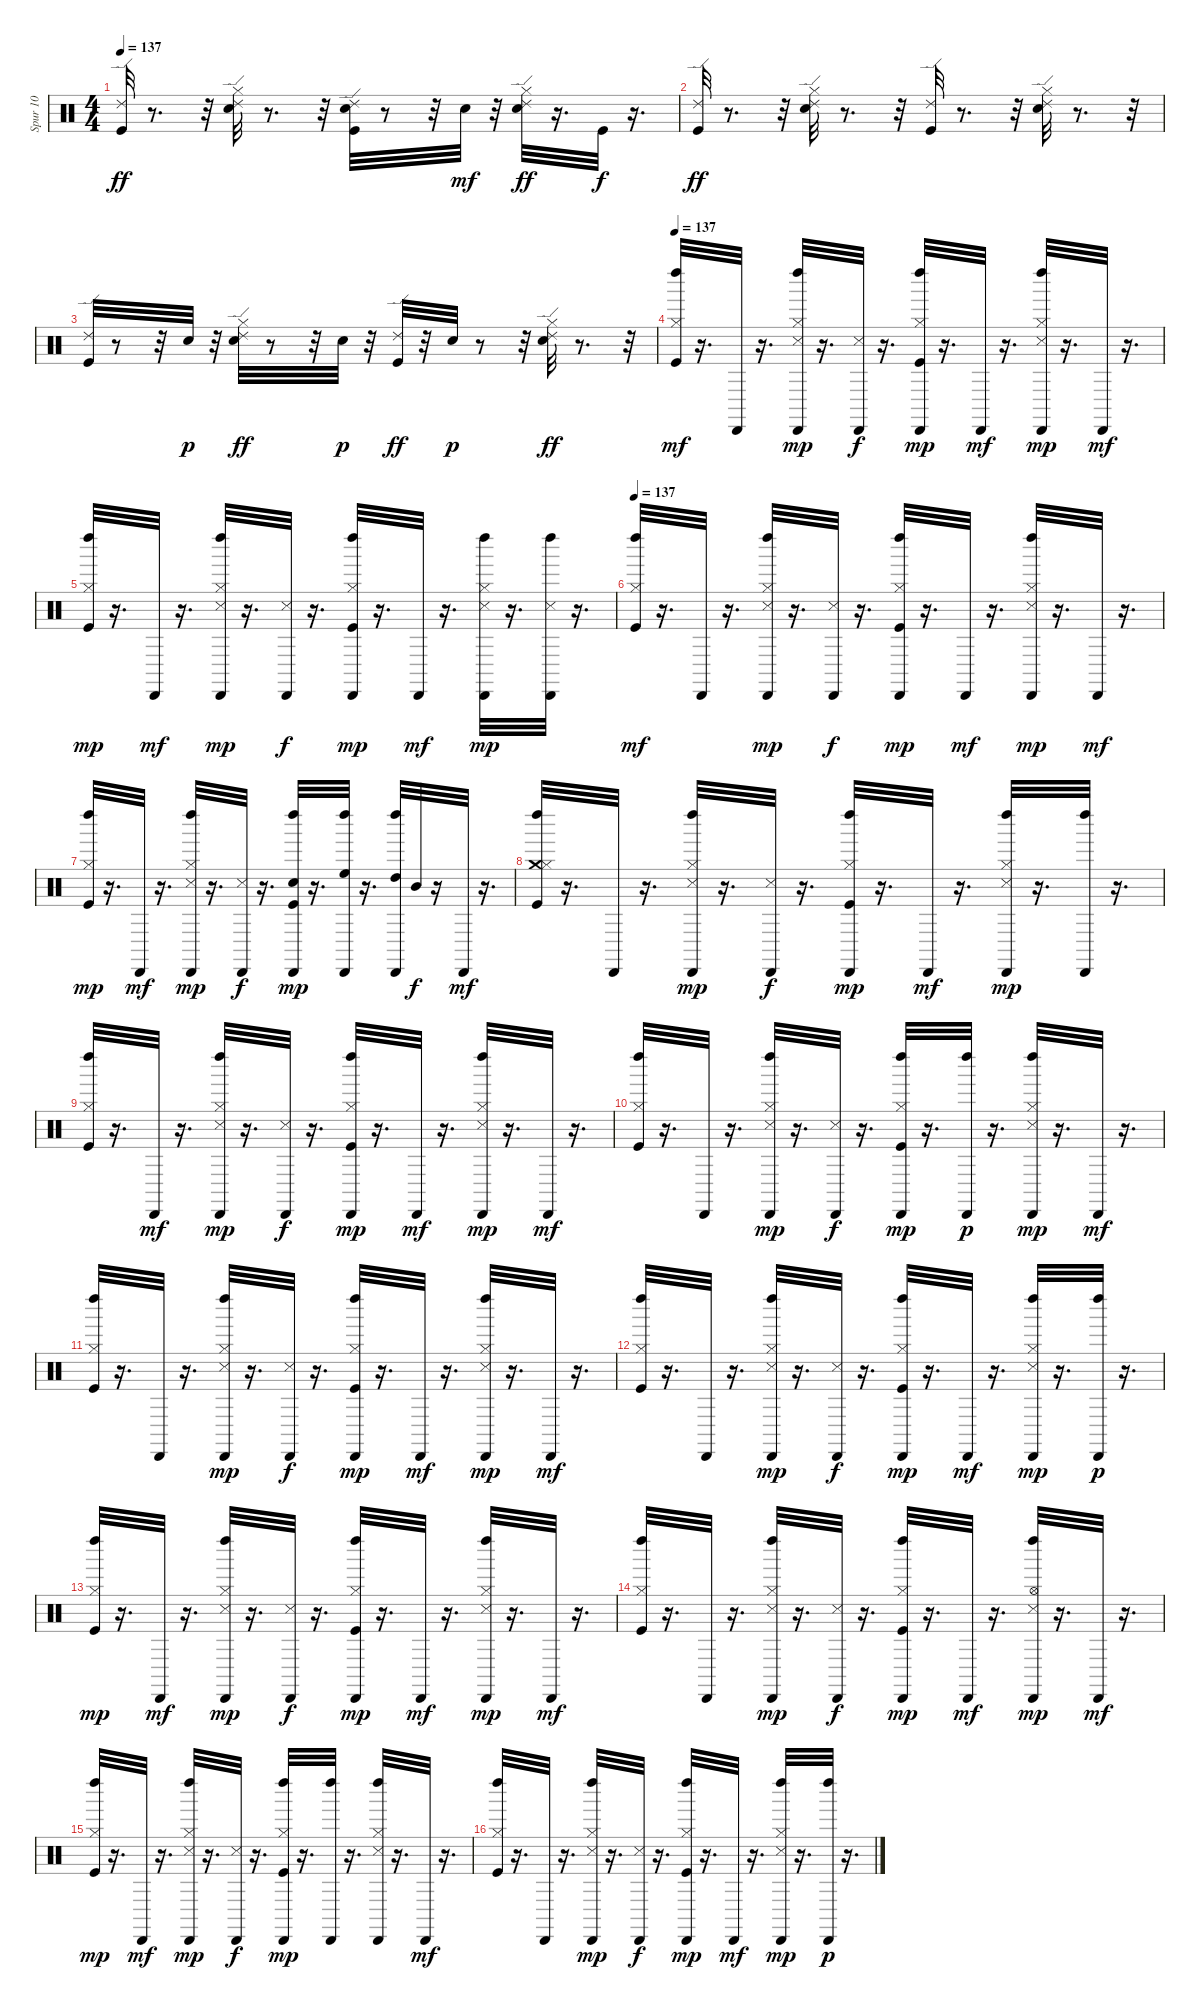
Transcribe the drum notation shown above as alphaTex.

\track ("Spur 10" "Spur 10") {instrument percussion}
\staff {score}
\articulation defaults
\ts (4 4)
\tempo 137
\clef neutral
\ks c
("Ride (edge) 2" "Kick (hit)").32{dy ff} r.8{d} r.32 ("Ride (edge) 2" "Electric Snare (hit)" "Hi-Hat (closed)").32 r.8{d} r.32 ("Ride (edge) 2" "Kick (hit)" "Electric Snare (hit)").32 r.8 r.32 "Electric Snare (hit)".32{dy mf} r.32 ("Ride (edge) 2" "Electric Snare (hit)" "Hi-Hat (closed)").32{dy ff} r.16{d} "Kick (hit)".32{dy f} r.16{d} |
("Ride (edge) 2" "Kick (hit)").32{dy ff} r.8{d} r.32 ("Ride (edge) 2" "Electric Snare (hit)" "Hi-Hat (closed)").32 r.8{d} r.32 ("Ride (edge) 2" "Kick (hit)").32 r.8{d} r.32 ("Ride (edge) 2" "Electric Snare (hit)" "Hi-Hat (closed)").32 r.8{d} r.32 |
("Ride (edge) 2" "Kick (hit)").32 r.8 r.32 "Electric Snare (hit)".32{dy p} r.32 ("Ride (edge) 2" "Electric Snare (hit)" "Hi-Hat (closed)").32{dy ff} r.8 r.32 "Electric Snare (hit)".32{dy p} r.32 ("Ride (edge) 2" "Kick (hit)").32{dy ff} r.32 "Electric Snare (hit)".32{dy p} r.8 r.32 ("Ride (edge) 2" "Electric Snare (hit)" "Hi-Hat (closed)").32{dy ff} r.8{d} r.32 |
\tempo 137
("Kick (hit)" "Hi-Hat (closed)" "Left Maraca (hit)").32{dy mf} r.16{d} "Cabasa (hit)".32 r.16{d} ("Hi-Hat (closed)" "Snare (side stick) 3" "Cabasa (hit)" "Left Maraca (hit)").32{dy mp} r.16{d} ("Snare (side stick) 3" "Cabasa (hit)").32{dy f} r.16{d} ("Kick (hit)" "Hi-Hat (closed)" "Cabasa (hit)" "Left Maraca (hit)").32{dy mp} r.16{d} "Cabasa (hit)".32{dy mf} r.16{d} ("Hi-Hat (closed)" "Snare (side stick) 3" "Cabasa (hit)" "Left Maraca (hit)").32{dy mp} r.16{d} "Cabasa (hit)".32{dy mf} r.16{d} |
("Kick (hit)" "Hi-Hat (closed)" "Left Maraca (hit)").32{dy mp} r.16{d} "Cabasa (hit)".32{dy mf} r.16{d} ("Hi-Hat (closed)" "Snare (side stick) 3" "Cabasa (hit)" "Left Maraca (hit)").32{dy mp} r.16{d} ("Snare (side stick) 3" "Cabasa (hit)").32{dy f} r.16{d} ("Kick (hit)" "Hi-Hat (closed)" "Cabasa (hit)" "Left Maraca (hit)").32{dy mp} r.16{d} "Cabasa (hit)".32{dy mf} r.16{d} ("Hi-Hat (closed)" "Snare (side stick) 3" "Cabasa (hit)" "Left Maraca (hit)").32{dy mp} r.16{d} ("Snare (side stick) 3" "Cabasa (hit)" "Left Maraca (hit)").32 r.16{d} |
\tempo 137
("Kick (hit)" "Hi-Hat (closed)" "Left Maraca (hit)").32{dy mf} r.16{d} "Cabasa (hit)".32 r.16{d} ("Hi-Hat (closed)" "Snare (side stick) 3" "Cabasa (hit)" "Left Maraca (hit)").32{dy mp} r.16{d} ("Snare (side stick) 3" "Cabasa (hit)").32{dy f} r.16{d} ("Kick (hit)" "Hi-Hat (closed)" "Cabasa (hit)" "Left Maraca (hit)").32{dy mp} r.16{d} "Cabasa (hit)".32{dy mf} r.16{d} ("Hi-Hat (closed)" "Snare (side stick) 3" "Cabasa (hit)" "Left Maraca (hit)").32{dy mp} r.16{d} "Cabasa (hit)".32{dy mf} r.16{d} |
("Kick (hit)" "Hi-Hat (closed)" "Left Maraca (hit)").32{dy mp} r.16{d} "Cabasa (hit)".32{dy mf} r.16{d} ("Hi-Hat (closed)" "Snare (side stick) 3" "Cabasa (hit)" "Left Maraca (hit)").32{dy mp} r.16{d} ("Snare (side stick) 3" "Cabasa (hit)").32{dy f} r.16{d} ("Kick (hit)" "Electric Snare (hit)" "Cabasa (hit)" "Left Maraca (hit)").32{dy mp} r.16{d} ("High Floor Tom (hit)" "Cabasa (hit)" "Left Maraca (hit)").32 r.16{d} ("High Tom (hit)" "Cabasa (hit)" "Left Maraca (hit)").32 "Mid Tom (hit)".32{dy f} r.16 "Cabasa (hit)".32{dy mf} r.16{d} |
("Crash medium (hit)" "Kick (hit)" "Hi-Hat (closed)" "Left Maraca (hit)").32 r.16{d} "Cabasa (hit)".32 r.16{d} ("Hi-Hat (closed)" "Snare (side stick) 3" "Cabasa (hit)" "Left Maraca (hit)").32{dy mp} r.16{d} ("Snare (side stick) 3" "Cabasa (hit)").32{dy f} r.16{d} ("Kick (hit)" "Hi-Hat (closed)" "Cabasa (hit)" "Left Maraca (hit)").32{dy mp} r.16{d} "Cabasa (hit)".32{dy mf} r.16{d} ("Hi-Hat (closed)" "Snare (side stick) 3" "Cabasa (hit)" "Left Maraca (hit)").32{dy mp} r.16{d} ("Cabasa (hit)" "Left Maraca (hit)").32 r.16{d} |
("Kick (hit)" "Hi-Hat (closed)" "Left Maraca (hit)").32 r.16{d} "Cabasa (hit)".32{dy mf} r.16{d} ("Hi-Hat (closed)" "Snare (side stick) 3" "Cabasa (hit)" "Left Maraca (hit)").32{dy mp} r.16{d} ("Snare (side stick) 3" "Cabasa (hit)").32{dy f} r.16{d} ("Kick (hit)" "Hi-Hat (closed)" "Cabasa (hit)" "Left Maraca (hit)").32{dy mp} r.16{d} "Cabasa (hit)".32{dy mf} r.16{d} ("Hi-Hat (closed)" "Snare (side stick) 3" "Cabasa (hit)" "Left Maraca (hit)").32{dy mp} r.16{d} "Cabasa (hit)".32{dy mf} r.16{d} |
("Kick (hit)" "Hi-Hat (closed)" "Left Maraca (hit)").32 r.16{d} "Cabasa (hit)".32 r.16{d} ("Hi-Hat (closed)" "Snare (side stick) 3" "Cabasa (hit)" "Left Maraca (hit)").32{dy mp} r.16{d} ("Snare (side stick) 3" "Cabasa (hit)").32{dy f} r.16{d} ("Kick (hit)" "Hi-Hat (closed)" "Cabasa (hit)" "Left Maraca (hit)").32{dy mp} r.16{d} ("Cabasa (hit)" "Left Maraca (hit)").32{dy p} r.16{d} ("Hi-Hat (closed)" "Snare (side stick) 3" "Cabasa (hit)" "Left Maraca (hit)").32{dy mp} r.16{d} "Cabasa (hit)".32{dy mf} r.16{d} |
("Kick (hit)" "Hi-Hat (closed)" "Left Maraca (hit)").32 r.16{d} "Cabasa (hit)".32 r.16{d} ("Hi-Hat (closed)" "Snare (side stick) 3" "Cabasa (hit)" "Left Maraca (hit)").32{dy mp} r.16{d} ("Snare (side stick) 3" "Cabasa (hit)").32{dy f} r.16{d} ("Kick (hit)" "Hi-Hat (closed)" "Cabasa (hit)" "Left Maraca (hit)").32{dy mp} r.16{d} "Cabasa (hit)".32{dy mf} r.16{d} ("Hi-Hat (closed)" "Snare (side stick) 3" "Cabasa (hit)" "Left Maraca (hit)").32{dy mp} r.16{d} "Cabasa (hit)".32{dy mf} r.16{d} |
("Kick (hit)" "Hi-Hat (closed)" "Left Maraca (hit)").32 r.16{d} "Cabasa (hit)".32 r.16{d} ("Hi-Hat (closed)" "Snare (side stick) 3" "Cabasa (hit)" "Left Maraca (hit)").32{dy mp} r.16{d} ("Snare (side stick) 3" "Cabasa (hit)").32{dy f} r.16{d} ("Kick (hit)" "Hi-Hat (closed)" "Cabasa (hit)" "Left Maraca (hit)").32{dy mp} r.16{d} "Cabasa (hit)".32{dy mf} r.16{d} ("Hi-Hat (closed)" "Snare (side stick) 3" "Cabasa (hit)" "Left Maraca (hit)").32{dy mp} r.16{d} ("Cabasa (hit)" "Left Maraca (hit)").32{dy p} r.16{d} |
("Kick (hit)" "Hi-Hat (closed)" "Left Maraca (hit)").32{dy mp} r.16{d} "Cabasa (hit)".32{dy mf} r.16{d} ("Hi-Hat (closed)" "Snare (side stick) 3" "Cabasa (hit)" "Left Maraca (hit)").32{dy mp} r.16{d} ("Snare (side stick) 3" "Cabasa (hit)").32{dy f} r.16{d} ("Kick (hit)" "Hi-Hat (closed)" "Cabasa (hit)" "Left Maraca (hit)").32{dy mp} r.16{d} "Cabasa (hit)".32{dy mf} r.16{d} ("Hi-Hat (closed)" "Snare (side stick) 3" "Cabasa (hit)" "Left Maraca (hit)").32{dy mp} r.16{d} "Cabasa (hit)".32{dy mf} r.16{d} |
("Kick (hit)" "Hi-Hat (closed)" "Left Maraca (hit)").32 r.16{d} "Cabasa (hit)".32 r.16{d} ("Hi-Hat (closed)" "Snare (side stick) 3" "Cabasa (hit)" "Left Maraca (hit)").32{dy mp} r.16{d} ("Snare (side stick) 3" "Cabasa (hit)").32{dy f} r.16{d} ("Kick (hit)" "Hi-Hat (closed)" "Cabasa (hit)" "Left Maraca (hit)").32{dy mp} r.16{d} "Cabasa (hit)".32{dy mf} r.16{d} ("Hi-Hat (open)" "Snare (side stick) 3" "Cabasa (hit)" "Left Maraca (hit)").32{dy mp} r.16{d} "Cabasa (hit)".32{dy mf} r.16{d} |
("Kick (hit)" "Hi-Hat (closed)" "Left Maraca (hit)").32{dy mp} r.16{d} "Cabasa (hit)".32{dy mf} r.16{d} ("Hi-Hat (closed)" "Snare (side stick) 3" "Cabasa (hit)" "Left Maraca (hit)").32{dy mp} r.16{d} ("Snare (side stick) 3" "Cabasa (hit)").32{dy f} r.16{d} ("Kick (hit)" "Hi-Hat (closed)" "Cabasa (hit)" "Left Maraca (hit)").32{dy mp} r.16{d} ("Cabasa (hit)" "Left Maraca (hit)").32 r.16{d} ("Hi-Hat (closed)" "Snare (side stick) 3" "Cabasa (hit)" "Left Maraca (hit)").32 r.16{d} "Cabasa (hit)".32{dy mf} r.16{d} |
("Kick (hit)" "Hi-Hat (closed)" "Left Maraca (hit)").32 r.16{d} "Cabasa (hit)".32 r.16{d} ("Hi-Hat (closed)" "Snare (side stick) 3" "Cabasa (hit)" "Left Maraca (hit)").32{dy mp} r.16{d} ("Snare (side stick) 3" "Cabasa (hit)").32{dy f} r.16{d} ("Kick (hit)" "Hi-Hat (closed)" "Cabasa (hit)" "Left Maraca (hit)").32{dy mp} r.16{d} "Cabasa (hit)".32{dy mf} r.16{d} ("Hi-Hat (closed)" "Snare (side stick) 3" "Cabasa (hit)" "Left Maraca (hit)").32{dy mp} r.16{d} ("Cabasa (hit)" "Left Maraca (hit)").32{dy p} r.16{d}
